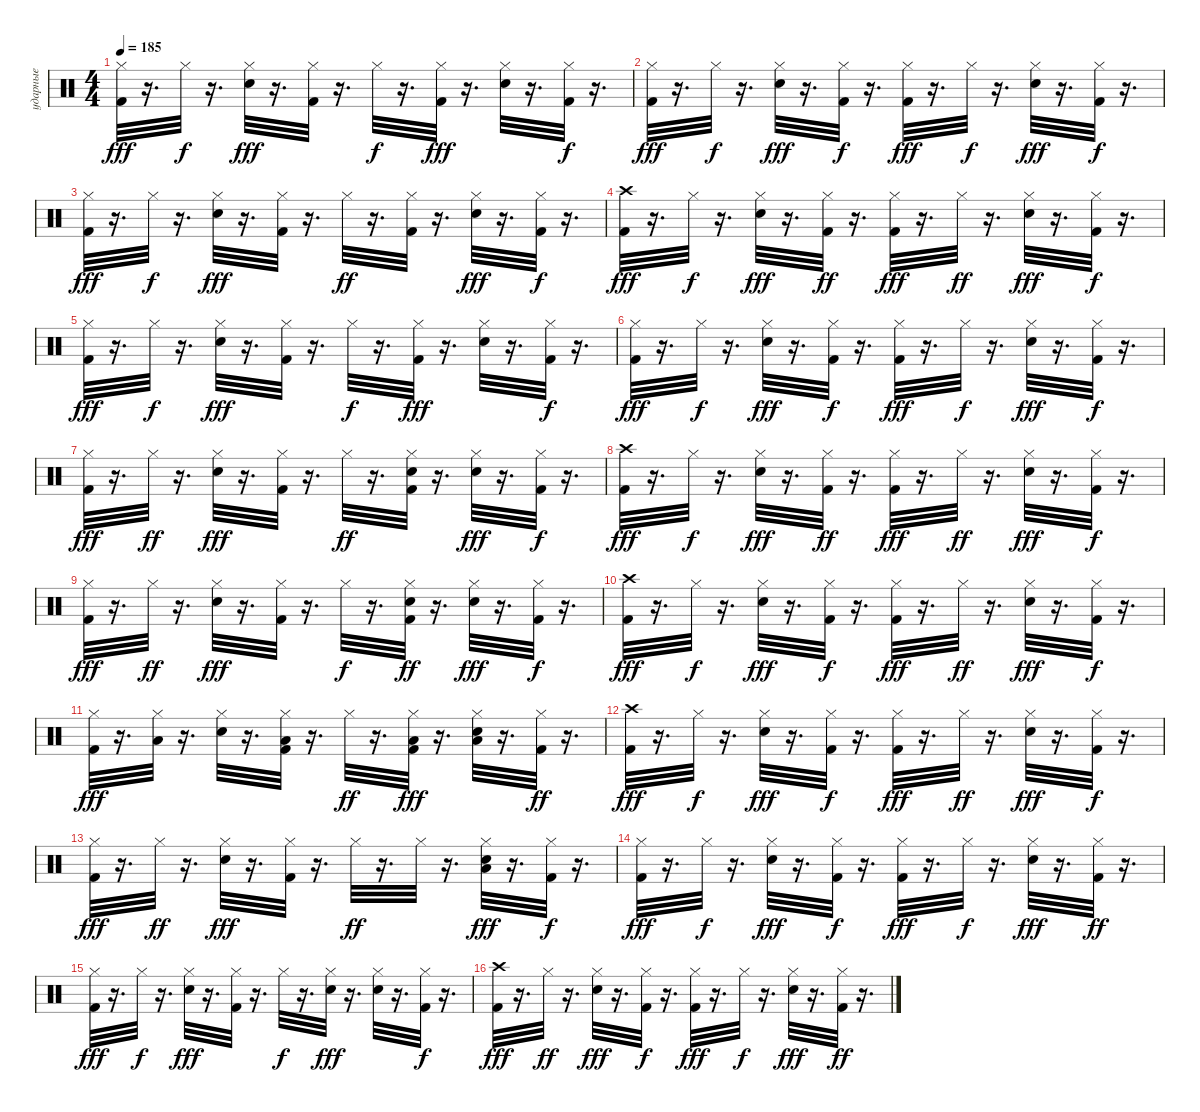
\track ("ударные" "ударные") {instrument percussion}
\staff {score}
\articulation defaults
\ts (4 4)
\tempo 185
\clef neutral
\ks c
("Hi-Hat (closed)" "Kick (hit) 2").32{dy fff} r.16{d} "Hi-Hat (closed)".32{dy f} r.16{d} ("Hi-Hat (closed)" "Electric Snare (hit)").32{dy fff} r.16{d} ("Hi-Hat (closed)" "Kick (hit) 2").32 r.16{d} "Hi-Hat (closed)".32{dy f} r.16{d} ("Kick (hit) 2" "Hi-Hat (closed)").32{dy fff} r.16{d} ("Hi-Hat (closed)" "Electric Snare (hit)").32 r.16{d} ("Hi-Hat (closed)" "Kick (hit) 2").32{dy f} r.16{d} |
("Hi-Hat (closed)" "Kick (hit) 2").32{dy fff} r.16{d} "Hi-Hat (closed)".32{dy f} r.16{d} ("Hi-Hat (closed)" "Electric Snare (hit)").32{dy fff} r.16{d} ("Hi-Hat (closed)" "Kick (hit) 2").32{dy f} r.16{d} ("Hi-Hat (closed)" "Kick (hit) 2").32{dy fff} r.16{d} "Hi-Hat (closed)".32{dy f} r.16{d} ("Hi-Hat (closed)" "Electric Snare (hit)").32{dy fff} r.16{d} ("Hi-Hat (closed)" "Kick (hit) 2").32{dy f} r.16{d} |
("Hi-Hat (closed)" "Kick (hit) 2").32{dy fff} r.16{d} "Hi-Hat (closed)".32{dy f} r.16{d} ("Hi-Hat (closed)" "Electric Snare (hit)").32{dy fff} r.16{d} ("Hi-Hat (closed)" "Kick (hit) 2").32 r.16{d} "Hi-Hat (closed)".32{dy ff} r.16{d} ("Kick (hit) 2" "Hi-Hat (closed)").32 r.16{d} ("Hi-Hat (closed)" "Electric Snare (hit)").32{dy fff} r.16{d} ("Hi-Hat (closed)" "Kick (hit) 2").32{dy f} r.16{d} |
("Crash high (hit)" "Kick (hit) 2").32{dy fff} r.16{d} "Hi-Hat (closed)".32{dy f} r.16{d} ("Hi-Hat (closed)" "Electric Snare (hit)").32{dy fff} r.16{d} ("Hi-Hat (closed)" "Kick (hit) 2").32{dy ff} r.16{d} ("Hi-Hat (closed)" "Kick (hit) 2").32{dy fff} r.16{d} "Hi-Hat (closed)".32{dy ff} r.16{d} ("Hi-Hat (closed)" "Electric Snare (hit)").32{dy fff} r.16{d} ("Hi-Hat (closed)" "Kick (hit) 2").32{dy f} r.16{d} |
("Hi-Hat (closed)" "Kick (hit) 2").32{dy fff} r.16{d} "Hi-Hat (closed)".32{dy f} r.16{d} ("Hi-Hat (closed)" "Electric Snare (hit)").32{dy fff} r.16{d} ("Hi-Hat (closed)" "Kick (hit) 2").32 r.16{d} "Hi-Hat (closed)".32{dy f} r.16{d} ("Kick (hit) 2" "Hi-Hat (closed)").32{dy fff} r.16{d} ("Hi-Hat (closed)" "Electric Snare (hit)").32 r.16{d} ("Hi-Hat (closed)" "Kick (hit) 2").32{dy f} r.16{d} |
("Hi-Hat (closed)" "Kick (hit) 2").32{dy fff} r.16{d} "Hi-Hat (closed)".32{dy f} r.16{d} ("Hi-Hat (closed)" "Electric Snare (hit)").32{dy fff} r.16{d} ("Hi-Hat (closed)" "Kick (hit) 2").32{dy f} r.16{d} ("Hi-Hat (closed)" "Kick (hit) 2").32{dy fff} r.16{d} "Hi-Hat (closed)".32{dy f} r.16{d} ("Hi-Hat (closed)" "Electric Snare (hit)").32{dy fff} r.16{d} ("Hi-Hat (closed)" "Kick (hit) 2").32{dy f} r.16{d} |
("Hi-Hat (closed)" "Kick (hit) 2").32{dy fff} r.16{d} "Hi-Hat (closed)".32{dy ff} r.16{d} ("Hi-Hat (closed)" "Electric Snare (hit)").32{dy fff} r.16{d} ("Hi-Hat (closed)" "Kick (hit) 2").32 r.16{d} "Hi-Hat (closed)".32{dy ff} r.16{d} ("Electric Snare (hit)" "Kick (hit) 2" "Hi-Hat (closed)").32 r.16{d} ("Hi-Hat (closed)" "Electric Snare (hit)").32{dy fff} r.16{d} ("Hi-Hat (closed)" "Kick (hit) 2").32{dy f} r.16{d} |
("Crash high (hit)" "Kick (hit) 2").32{dy fff} r.16{d} "Hi-Hat (closed)".32{dy f} r.16{d} ("Hi-Hat (closed)" "Electric Snare (hit)").32{dy fff} r.16{d} ("Hi-Hat (closed)" "Kick (hit) 2").32{dy ff} r.16{d} ("Hi-Hat (closed)" "Kick (hit) 2").32{dy fff} r.16{d} "Hi-Hat (closed)".32{dy ff} r.16{d} ("Hi-Hat (closed)" "Electric Snare (hit)").32{dy fff} r.16{d} ("Hi-Hat (closed)" "Kick (hit) 2").32{dy f} r.16{d} |
("Hi-Hat (closed)" "Kick (hit) 2").32{dy fff} r.16{d} "Hi-Hat (closed)".32{dy ff} r.16{d} ("Hi-Hat (closed)" "Electric Snare (hit)").32{dy fff} r.16{d} ("Hi-Hat (closed)" "Kick (hit) 2").32 r.16{d} "Hi-Hat (closed)".32{dy f} r.16{d} ("Electric Snare (hit)" "Kick (hit) 2" "Hi-Hat (closed)").32{dy ff} r.16{d} ("Hi-Hat (closed)" "Electric Snare (hit)").32{dy fff} r.16{d} ("Hi-Hat (closed)" "Kick (hit) 2").32{dy f} r.16{d} |
("Crash high (hit)" "Kick (hit) 2").32{dy fff} r.16{d} "Hi-Hat (closed)".32{dy f} r.16{d} ("Hi-Hat (closed)" "Electric Snare (hit)").32{dy fff} r.16{d} ("Hi-Hat (closed)" "Kick (hit) 2").32{dy f} r.16{d} ("Hi-Hat (closed)" "Kick (hit) 2").32{dy fff} r.16{d} "Hi-Hat (closed)".32{dy ff} r.16{d} ("Hi-Hat (closed)" "Electric Snare (hit)").32{dy fff} r.16{d} ("Hi-Hat (closed)" "Kick (hit) 2").32{dy f} r.16{d} |
("Hi-Hat (closed)" "Kick (hit) 2").32{dy fff} r.16{d} ("Low Floor Tom (hit)" "Hi-Hat (closed)").32 r.16{d} ("Hi-Hat (closed)" "Electric Snare (hit)").32 r.16{d} ("Low Floor Tom (hit)" "Hi-Hat (closed)" "Kick (hit) 2").32 r.16{d} "Hi-Hat (closed)".32{dy ff} r.16{d} ("Low Floor Tom (hit)" "Kick (hit) 2" "Hi-Hat (closed)").32{dy fff} r.16{d} ("Low Floor Tom (hit)" "Hi-Hat (closed)" "Electric Snare (hit)").32 r.16{d} ("Hi-Hat (closed)" "Kick (hit) 2").32{dy ff} r.16{d} |
("Crash high (hit)" "Kick (hit) 2").32{dy fff} r.16{d} "Hi-Hat (closed)".32{dy f} r.16{d} ("Hi-Hat (closed)" "Electric Snare (hit)").32{dy fff} r.16{d} ("Hi-Hat (closed)" "Kick (hit) 2").32{dy f} r.16{d} ("Hi-Hat (closed)" "Kick (hit) 2").32{dy fff} r.16{d} "Hi-Hat (closed)".32{dy ff} r.16{d} ("Hi-Hat (closed)" "Electric Snare (hit)").32{dy fff} r.16{d} ("Hi-Hat (closed)" "Kick (hit) 2").32{dy f} r.16{d} |
("Hi-Hat (closed)" "Kick (hit) 2").32{dy fff} r.16{d} "Hi-Hat (closed)".32{dy ff} r.16{d} ("Hi-Hat (closed)" "Electric Snare (hit)").32{dy fff} r.16{d} ("Hi-Hat (closed)" "Kick (hit) 2").32 r.16{d} "Hi-Hat (closed)".32{dy ff} r.16{d} "Hi-Hat (closed)".32 r.16{d} ("Low Floor Tom (hit)" "Hi-Hat (closed)" "Electric Snare (hit)").32{dy fff} r.16{d} ("Hi-Hat (closed)" "Kick (hit) 2").32{dy f} r.16{d} |
("Hi-Hat (closed)" "Kick (hit) 2").32{dy fff} r.16{d} "Hi-Hat (closed)".32{dy f} r.16{d} ("Hi-Hat (closed)" "Electric Snare (hit)").32{dy fff} r.16{d} ("Hi-Hat (closed)" "Kick (hit) 2").32{dy f} r.16{d} ("Hi-Hat (closed)" "Kick (hit) 2").32{dy fff} r.16{d} "Hi-Hat (closed)".32{dy f} r.16{d} ("Hi-Hat (closed)" "Electric Snare (hit)").32{dy fff} r.16{d} ("Hi-Hat (closed)" "Kick (hit) 2").32{dy ff} r.16{d} |
("Hi-Hat (closed)" "Kick (hit) 2").32{dy fff} r.16{d} "Hi-Hat (closed)".32{dy f} r.16{d} ("Hi-Hat (closed)" "Electric Snare (hit)").32{dy fff} r.16{d} ("Hi-Hat (closed)" "Kick (hit) 2").32 r.16{d} "Hi-Hat (closed)".32{dy f} r.16{d} ("Electric Snare (hit)" "Hi-Hat (closed)").32{dy fff} r.16{d} ("Hi-Hat (closed)" "Electric Snare (hit)").32 r.16{d} ("Hi-Hat (closed)" "Kick (hit) 2").32{dy f} r.16{d} |
("Crash high (hit)" "Kick (hit) 2").32{dy fff} r.16{d} "Hi-Hat (closed)".32{dy ff} r.16{d} ("Hi-Hat (closed)" "Electric Snare (hit)").32{dy fff} r.16{d} ("Hi-Hat (closed)" "Kick (hit) 2").32{dy f} r.16{d} ("Hi-Hat (closed)" "Kick (hit) 2").32{dy fff} r.16{d} "Hi-Hat (closed)".32{dy f} r.16{d} ("Hi-Hat (closed)" "Electric Snare (hit)").32{dy fff} r.16{d} ("Hi-Hat (closed)" "Kick (hit) 2").32{dy ff} r.16{d}
